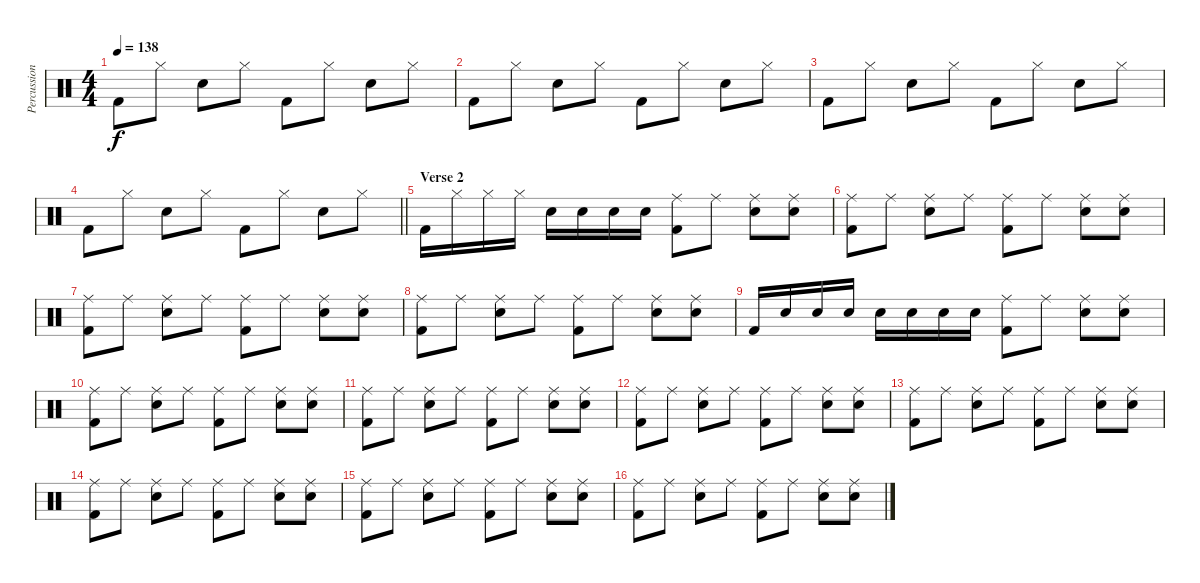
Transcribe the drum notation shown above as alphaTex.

\track ("Percussion" "Percussion") {instrument percussion}
\staff {score}
\articulation defaults
\ts (4 4)
\tempo 138
\clef neutral
\ks c "Kick (hit) 2".8{dy f} "Hi-Hat (closed)".8 "Electric Snare (hit)".8 "Hi-Hat (closed)".8 "Kick (hit) 2".8 "Hi-Hat (closed)".8 "Electric Snare (hit)".8 "Hi-Hat (closed)".8
|
"Kick (hit) 2".8 "Hi-Hat (closed)".8 "Electric Snare (hit)".8 "Hi-Hat (closed)".8 "Kick (hit) 2".8 "Hi-Hat (closed)".8 "Electric Snare (hit)".8 "Hi-Hat (closed)".8 |
"Kick (hit) 2".8 "Hi-Hat (closed)".8 "Electric Snare (hit)".8 "Hi-Hat (closed)".8 "Kick (hit) 2".8 "Hi-Hat (closed)".8 "Electric Snare (hit)".8 "Hi-Hat (closed)".8 |
\barLineRight lightlight "Kick (hit) 2".8 "Hi-Hat (closed)".8 "Electric Snare (hit)".8 "Hi-Hat (closed)".8 "Kick (hit) 2".8 "Hi-Hat (closed)".8 "Electric Snare (hit)".8 "Hi-Hat (closed)".8
|
\section ("" "Verse 2")
"Kick (hit) 2".16 "Hi-Hat (closed)".16 "Hi-Hat (closed)".16 "Hi-Hat (closed)".16 "Electric Snare (hit)".16 "Electric Snare (hit)".16 "Electric Snare (hit)".16 "Electric Snare (hit)".16 ("Kick (hit) 2" "Ride (middle)").8 "Ride (middle)".8 ("Electric Snare (hit)" "Ride (middle)").8 ("Electric Snare (hit)" "Ride (middle)").8 |
("Kick (hit) 2" "Ride (middle)").8 "Ride (middle)".8 ("Electric Snare (hit)" "Ride (middle)").8 "Ride (middle)".8 ("Kick (hit) 2" "Ride (middle)").8 "Ride (middle)".8 ("Electric Snare (hit)" "Ride (middle)").8 ("Electric Snare (hit)" "Ride (middle)").8 |
("Kick (hit) 2" "Ride (middle)").8 "Ride (middle)".8 ("Electric Snare (hit)" "Ride (middle)").8 "Ride (middle)".8 ("Kick (hit) 2" "Ride (middle)").8 "Ride (middle)".8 ("Electric Snare (hit)" "Ride (middle)").8 ("Electric Snare (hit)" "Ride (middle)").8 |
("Kick (hit) 2" "Ride (middle)").8 "Ride (middle)".8 ("Electric Snare (hit)" "Ride (middle)").8 "Ride (middle)".8 ("Kick (hit) 2" "Ride (middle)").8 "Ride (middle)".8 ("Electric Snare (hit)" "Ride (middle)").8 ("Electric Snare (hit)" "Ride (middle)").8 |
"Kick (hit) 2".16 "Electric Snare (hit)".16 "Electric Snare (hit)".16 "Electric Snare (hit)".16 "Electric Snare (hit)".16 "Electric Snare (hit)".16 "Electric Snare (hit)".16 "Electric Snare (hit)".16 ("Kick (hit) 2" "Ride (middle)").8 "Ride (middle)".8 ("Electric Snare (hit)" "Ride (middle)").8 ("Electric Snare (hit)" "Ride (middle)").8 |
("Kick (hit) 2" "Ride (middle)").8 "Ride (middle)".8 ("Electric Snare (hit)" "Ride (middle)").8 "Ride (middle)".8 ("Kick (hit) 2" "Ride (middle)").8 "Ride (middle)".8 ("Electric Snare (hit)" "Ride (middle)").8 ("Electric Snare (hit)" "Ride (middle)").8 |
("Kick (hit) 2" "Ride (middle)").8 "Ride (middle)".8 ("Electric Snare (hit)" "Ride (middle)").8 "Ride (middle)".8 ("Kick (hit) 2" "Ride (middle)").8 "Ride (middle)".8 ("Electric Snare (hit)" "Ride (middle)").8 ("Electric Snare (hit)" "Ride (middle)").8 |
("Kick (hit) 2" "Ride (middle)").8 "Ride (middle)".8 ("Electric Snare (hit)" "Ride (middle)").8 "Ride (middle)".8 ("Kick (hit) 2" "Ride (middle)").8 "Ride (middle)".8 ("Electric Snare (hit)" "Ride (middle)").8 ("Electric Snare (hit)" "Ride (middle)").8 |
("Kick (hit) 2" "Ride (middle)").8 "Ride (middle)".8 ("Electric Snare (hit)" "Ride (middle)").8 "Ride (middle)".8 ("Kick (hit) 2" "Ride (middle)").8 "Ride (middle)".8 ("Electric Snare (hit)" "Ride (middle)").8 ("Electric Snare (hit)" "Ride (middle)").8 |
("Kick (hit) 2" "Ride (middle)").8 "Ride (middle)".8 ("Electric Snare (hit)" "Ride (middle)").8 "Ride (middle)".8 ("Kick (hit) 2" "Ride (middle)").8 "Ride (middle)".8 ("Electric Snare (hit)" "Ride (middle)").8 ("Electric Snare (hit)" "Ride (middle)").8 |
("Kick (hit) 2" "Ride (middle)").8 "Ride (middle)".8 ("Electric Snare (hit)" "Ride (middle)").8 "Ride (middle)".8 ("Kick (hit) 2" "Ride (middle)").8 "Ride (middle)".8 ("Electric Snare (hit)" "Ride (middle)").8 ("Electric Snare (hit)" "Ride (middle)").8 |
("Kick (hit) 2" "Ride (middle)").8 "Ride (middle)".8 ("Electric Snare (hit)" "Ride (middle)").8 "Ride (middle)".8 ("Kick (hit) 2" "Ride (middle)").8 "Ride (middle)".8 ("Electric Snare (hit)" "Ride (middle)").8 ("Electric Snare (hit)" "Ride (middle)").8
